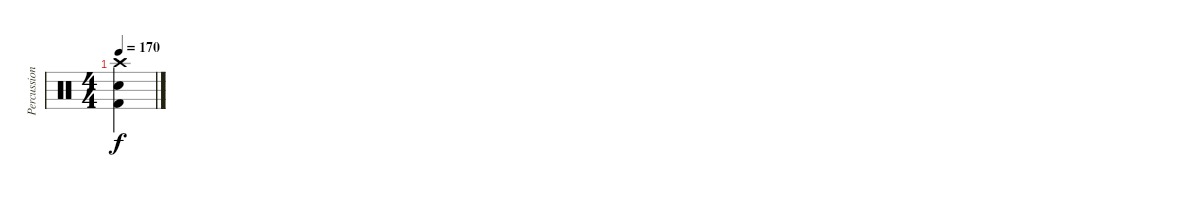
\track ("Percussion" "Percussion") {instrument percussion}
\staff {score}
\articulation defaults
\ts (4 4)
\tempo 170
\clef neutral
\ks c
("Crash high (hit)" "Electric Snare (hit)" "Kick (hit) 2").4{dy f}
